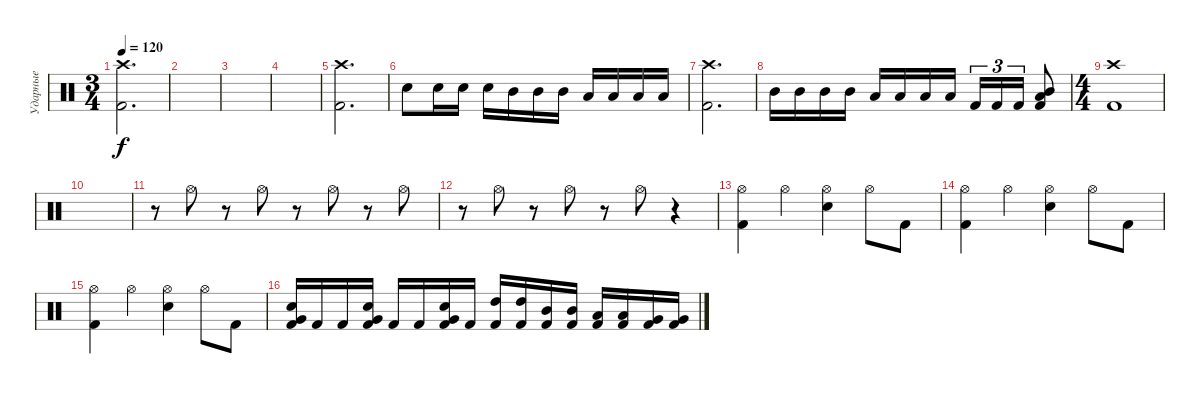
\track ("Ударные" "Ударные") {instrument percussion}
\staff {score}
\articulation defaults
\ts (3 4)
\tempo 120
\clef neutral
\ks c
("Kick (hit) 2" "Crash high (hit)").2{d dy f} |
|
|
|
("Kick (hit) 2" "Crash high (hit)").2{d} |
"Electric Snare (hit)".8 "Electric Snare (hit)".16 "Electric Snare (hit)".16 "Electric Snare (hit)".16 "Mid Tom (hit)".16 "Mid Tom (hit)".16 "Mid Tom (hit)".16 "Low Tom (hit)".16 "Low Tom (hit)".16 "Low Tom (hit)".16 "Low Tom (hit)".16 |
("Kick (hit) 2" "Crash high (hit)").2{d} |
"Mid Tom (hit)".16 "Mid Tom (hit)".16 "Mid Tom (hit)".16 "Mid Tom (hit)".16 "Low Tom (hit)".16 "Low Tom (hit)".16 "Low Tom (hit)".16 "Low Tom (hit)".16 "Kick (hit) 2".16{tu (3 2)} "Kick (hit) 2".16{tu (3 2)} "Kick (hit) 2".16{tu (3 2)} ("Kick (hit) 2" "Mid Tom (hit)" "Low Tom (hit)").8 |
\ts (4 4)
("Kick (hit) 2" "Crash high (hit)").1 |
|
r.8 "Hi-Hat (open)".8 r.8 "Hi-Hat (open)".8 r.8 "Hi-Hat (open)".8 r.8 "Hi-Hat (open)".8 |
r.8 "Hi-Hat (open)".8 r.8 "Hi-Hat (open)".8 r.8 "Hi-Hat (open)".8 r.4 |
("Hi-Hat (open)" "Kick (hit) 2").4 "Hi-Hat (open)".4 ("Hi-Hat (open)" "Electric Snare (hit)").4 "Hi-Hat (open)".8 "Kick (hit) 2".8 |
("Hi-Hat (open)" "Kick (hit) 2").4 "Hi-Hat (open)".4 ("Hi-Hat (open)" "Electric Snare (hit)").4 "Hi-Hat (open)".8 "Kick (hit) 2".8 |
("Hi-Hat (open)" "Kick (hit) 2").4 "Hi-Hat (open)".4 ("Hi-Hat (open)" "Electric Snare (hit)").4 "Hi-Hat (open)".8 "Kick (hit) 2".8 |
("Kick (hit) 2" "Very Low Tom (hit)" "Electric Snare (hit)").16 "Kick (hit) 2".16 "Kick (hit) 2".16 ("Kick (hit) 2" "Very Low Tom (hit)" "Electric Snare (hit)").16 "Kick (hit) 2".16 "Kick (hit) 2".16 ("Kick (hit) 2" "Very Low Tom (hit)" "Electric Snare (hit)").16 "Kick (hit) 2".16 ("Kick (hit) 2" "High Tom (hit)").16 ("Kick (hit) 2" "High Tom (hit)").16 ("Kick (hit) 2" "Mid Tom (hit)").16 ("Kick (hit) 2" "Mid Tom (hit)").16 ("Kick (hit) 2" "Low Tom (hit)").16 ("Kick (hit) 2" "Low Tom (hit)").16 ("Kick (hit) 2" "Very Low Tom (hit)").16 ("Kick (hit) 2" "Very Low Tom (hit)").16
